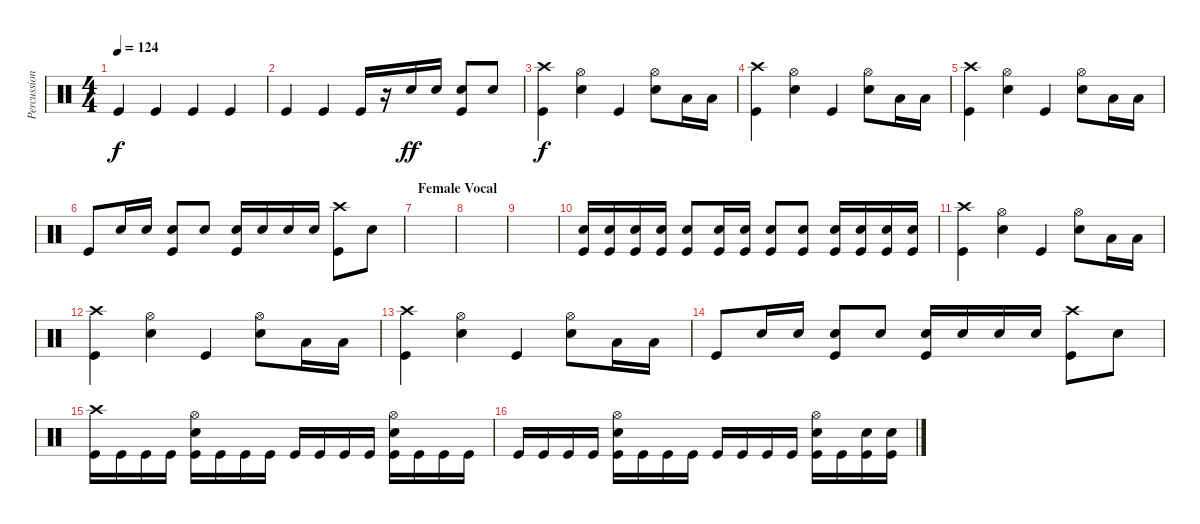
\track ("Percussion" "Percussion") {instrument percussion}
\staff {score}
\articulation defaults
\ts (4 4)
\tempo 124
\clef neutral
\ks c "Kick (hit)".4{dy f} "Kick (hit)".4 "Kick (hit)".4 "Kick (hit)".4
|
"Kick (hit)".4 "Kick (hit)".4 "Kick (hit)".16 r.16 "Snare (hit) 2".16{dy ff} "Snare (hit) 2".16 ("Snare (hit) 2" "Kick (hit)").8 "Snare (hit) 2".8 |
("Crash high (hit)" "Kick (hit)").4{dy f} ("Hi-Hat (open)" "Snare (hit) 2").4 "Kick (hit)".4 ("Hi-Hat (open)" "Snare (hit) 2").8 "Low Tom (hit)".16 "Low Tom (hit)".16 |
("Crash high (hit)" "Kick (hit)").4 ("Hi-Hat (open)" "Snare (hit) 2").4 "Kick (hit)".4 ("Hi-Hat (open)" "Snare (hit) 2").8 "Low Tom (hit)".16 "Low Tom (hit)".16 |
("Crash high (hit)" "Kick (hit)").4 ("Hi-Hat (open)" "Snare (hit) 2").4 "Kick (hit)".4 ("Hi-Hat (open)" "Snare (hit) 2").8 "Low Tom (hit)".16 "Low Tom (hit)".16 |
"Kick (hit)".8 "Snare (hit) 2".16 "Snare (hit) 2".16 ("Snare (hit) 2" "Kick (hit)").8 "Snare (hit) 2".8 ("Snare (hit) 2" "Kick (hit)").16 "Snare (hit) 2".16 "Snare (hit) 2".16 "Snare (hit) 2".16 ("Crash high (hit)" "Kick (hit)").8 "Snare (hit) 2".8 |
\section ("" "Female Vocal")
|
|
|
("Snare (hit) 2" "Kick (hit)").16 ("Snare (hit) 2" "Kick (hit)").16 ("Snare (hit) 2" "Kick (hit)").16 ("Snare (hit) 2" "Kick (hit)").16 ("Snare (hit) 2" "Kick (hit)").8 ("Snare (hit) 2" "Kick (hit)").16 ("Snare (hit) 2" "Kick (hit)").16 ("Snare (hit) 2" "Kick (hit)").8 ("Snare (hit) 2" "Kick (hit)").8 ("Snare (hit) 2" "Kick (hit)").16 ("Snare (hit) 2" "Kick (hit)").16 ("Snare (hit) 2" "Kick (hit)").16 ("Snare (hit) 2" "Kick (hit)").16 |
("Crash high (hit)" "Kick (hit)").4 ("Hi-Hat (open)" "Snare (hit) 2").4 "Kick (hit)".4 ("Hi-Hat (open)" "Snare (hit) 2").8 "Low Tom (hit)".16 "Low Tom (hit)".16 |
("Crash high (hit)" "Kick (hit)").4 ("Hi-Hat (open)" "Snare (hit) 2").4 "Kick (hit)".4 ("Hi-Hat (open)" "Snare (hit) 2").8 "Low Tom (hit)".16 "Low Tom (hit)".16 |
("Crash high (hit)" "Kick (hit)").4 ("Hi-Hat (open)" "Snare (hit) 2").4 "Kick (hit)".4 ("Hi-Hat (open)" "Snare (hit) 2").8 "Low Tom (hit)".16 "Low Tom (hit)".16 |
"Kick (hit)".8 "Snare (hit) 2".16 "Snare (hit) 2".16 ("Snare (hit) 2" "Kick (hit)").8 "Snare (hit) 2".8 ("Snare (hit) 2" "Kick (hit)").16 "Snare (hit) 2".16 "Snare (hit) 2".16 "Snare (hit) 2".16 ("Crash high (hit)" "Kick (hit)").8 "Snare (hit) 2".8 |
("Crash high (hit)" "Kick (hit)").16 "Kick (hit)".16 "Kick (hit)".16 "Kick (hit)".16 ("Hi-Hat (open)" "Snare (hit) 2" "Kick (hit)").16 "Kick (hit)".16 "Kick (hit)".16 "Kick (hit)".16 "Kick (hit)".16 "Kick (hit)".16 "Kick (hit)".16 "Kick (hit)".16 ("Hi-Hat (open)" "Snare (hit) 2" "Kick (hit)").16 "Kick (hit)".16 "Kick (hit)".16 "Kick (hit)".16 |
"Kick (hit)".16 "Kick (hit)".16 "Kick (hit)".16 "Kick (hit)".16 ("Hi-Hat (open)" "Snare (hit) 2" "Kick (hit)").16 "Kick (hit)".16 "Kick (hit)".16 "Kick (hit)".16 "Kick (hit)".16 "Kick (hit)".16 "Kick (hit)".16 "Kick (hit)".16 ("Hi-Hat (open)" "Snare (hit) 2" "Kick (hit)").16 "Kick (hit)".16 ("Snare (hit) 2" "Kick (hit)").16 ("Snare (hit) 2" "Kick (hit)").16
